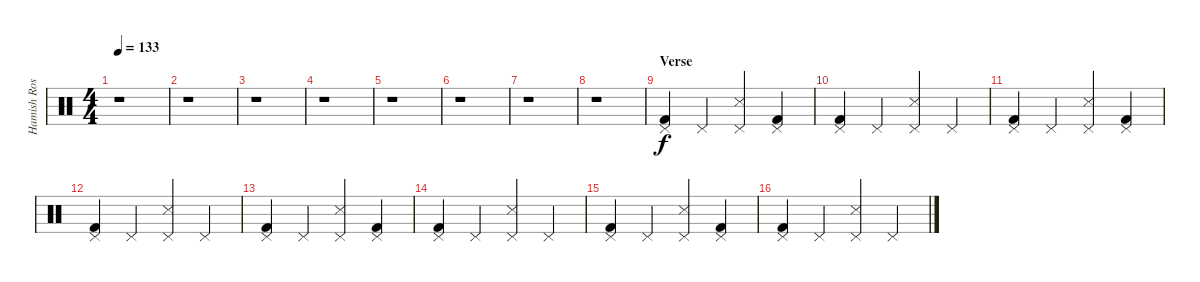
\track ("Hamish Rosser" "Hamish Ros") {instrument percussion}
\staff {score}
\articulation defaults
\ts (4 4)
\tempo 133
\clef neutral
\ks c
r.1{dy f} |
r.1 |
r.1 |
r.1 |
r.1 |
r.1 |
r.1 |
r.1 |
\section ("" "Verse ")
("Pedal Hi-Hat (hit)" "Kick (hit) 2").4 "Pedal Hi-Hat (hit)".4 ("Pedal Hi-Hat (hit)" "Snare (side stick) 3").4 ("Pedal Hi-Hat (hit)" "Kick (hit) 2").4 |
("Pedal Hi-Hat (hit)" "Kick (hit) 2").4 "Pedal Hi-Hat (hit)".4 ("Pedal Hi-Hat (hit)" "Snare (side stick) 3").4 "Pedal Hi-Hat (hit)".4 |
("Pedal Hi-Hat (hit)" "Kick (hit) 2").4 "Pedal Hi-Hat (hit)".4 ("Pedal Hi-Hat (hit)" "Snare (side stick) 3").4 ("Pedal Hi-Hat (hit)" "Kick (hit) 2").4 |
("Pedal Hi-Hat (hit)" "Kick (hit) 2").4 "Pedal Hi-Hat (hit)".4 ("Pedal Hi-Hat (hit)" "Snare (side stick) 3").4 "Pedal Hi-Hat (hit)".4 |
("Pedal Hi-Hat (hit)" "Kick (hit) 2").4 "Pedal Hi-Hat (hit)".4 ("Pedal Hi-Hat (hit)" "Snare (side stick) 3").4 ("Pedal Hi-Hat (hit)" "Kick (hit) 2").4 |
("Pedal Hi-Hat (hit)" "Kick (hit) 2").4 "Pedal Hi-Hat (hit)".4 ("Pedal Hi-Hat (hit)" "Snare (side stick) 3").4 "Pedal Hi-Hat (hit)".4 |
("Pedal Hi-Hat (hit)" "Kick (hit) 2").4 "Pedal Hi-Hat (hit)".4 ("Pedal Hi-Hat (hit)" "Snare (side stick) 3").4 ("Pedal Hi-Hat (hit)" "Kick (hit) 2").4 |
("Pedal Hi-Hat (hit)" "Kick (hit) 2").4 "Pedal Hi-Hat (hit)".4 ("Pedal Hi-Hat (hit)" "Snare (side stick) 3").4 "Pedal Hi-Hat (hit)".4
